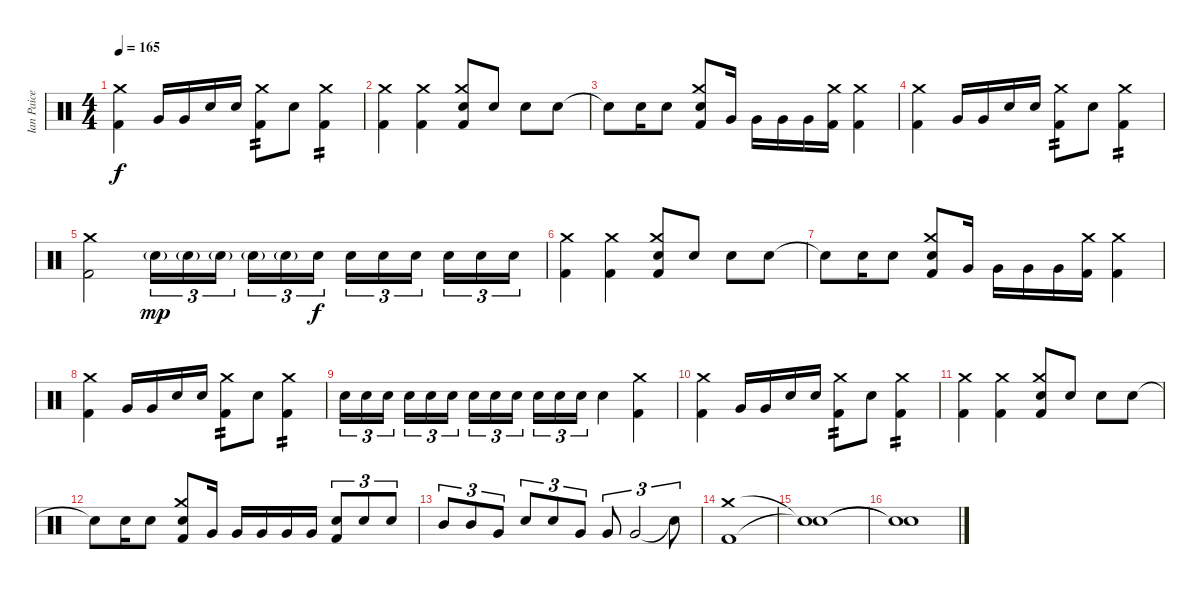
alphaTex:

\track ("Ian Paice - Drums" "Ian Paice ") {instrument percussion}
\staff {score}
\articulation defaults
\ts (4 4)
\tempo 165
\clef neutral
\ks c
("Kick (hit) 2" "Crash medium (hit)").4{dy f} "Very Low Tom (hit)".16 "Very Low Tom (hit)".16 "Electric Snare (hit)".16 "Electric Snare (hit)".16 ("Kick (hit) 2" "Crash medium (hit)").8{tp 2} "Electric Snare (hit)".8 ("Kick (hit) 2" "Crash medium (hit)").4{tp 2} |
("Kick (hit) 2" "Crash medium (hit)").4 ("Kick (hit) 2" "Crash medium (hit)").4 ("Kick (hit) 2" "Crash medium (hit)" "Electric Snare (hit)").8 "Electric Snare (hit)".8 "Electric Snare (hit)".8 "Electric Snare (hit)".8 |
"Snare (hit)"{t}.8 "Electric Snare (hit)".16 "Electric Snare (hit)".8 ("Kick (hit) 2" "Crash medium (hit)" "Electric Snare (hit)").8 "Very Low Tom (hit)".16 "Very Low Tom (hit)".16 "Very Low Tom (hit)".16 "Very Low Tom (hit)".16 ("Kick (hit) 2" "Crash medium (hit)").16 ("Kick (hit) 2" "Crash medium (hit)").4 |
("Kick (hit) 2" "Crash medium (hit)").4 "Very Low Tom (hit)".16 "Very Low Tom (hit)".16 "Electric Snare (hit)".16 "Electric Snare (hit)".16 ("Kick (hit) 2" "Crash medium (hit)").8{tp 2} "Electric Snare (hit)".8 ("Kick (hit) 2" "Crash medium (hit)").4{tp 2} |
("Kick (hit) 2" "Crash medium (hit)").2 "Electric Snare (hit)"{g}.16{tu (3 2) dy mp} "Electric Snare (hit)"{g}.16{tu (3 2)} "Electric Snare (hit)"{g}.16{tu (3 2) beam splitsecondary} "Electric Snare (hit)"{g}.16{tu (3 2)} "Electric Snare (hit)"{g}.16{tu (3 2)} "Electric Snare (hit)".16{tu (3 2) dy f} "Electric Snare (hit)".16{tu (3 2)} "Electric Snare (hit)".16{tu (3 2)} "Electric Snare (hit)".16{tu (3 2) beam splitsecondary} "Electric Snare (hit)".16{tu (3 2)} "Electric Snare (hit)".16{tu (3 2)} "Electric Snare (hit)".16{tu (3 2)} |
("Kick (hit) 2" "Crash medium (hit)").4 ("Kick (hit) 2" "Crash medium (hit)").4 ("Kick (hit) 2" "Crash medium (hit)" "Electric Snare (hit)").8 "Electric Snare (hit)".8 "Electric Snare (hit)".8 "Electric Snare (hit)".8 |
"Snare (hit)"{t}.8 "Electric Snare (hit)".16 "Electric Snare (hit)".8 ("Kick (hit) 2" "Crash medium (hit)" "Electric Snare (hit)").8 "Very Low Tom (hit)".16 "Very Low Tom (hit)".16 "Very Low Tom (hit)".16 "Very Low Tom (hit)".16 ("Kick (hit) 2" "Crash medium (hit)").16 ("Kick (hit) 2" "Crash medium (hit)").4 |
("Kick (hit) 2" "Crash medium (hit)").4 "Very Low Tom (hit)".16 "Very Low Tom (hit)".16 "Electric Snare (hit)".16 "Electric Snare (hit)".16 ("Kick (hit) 2" "Crash medium (hit)").8{tp 2} "Electric Snare (hit)".8 ("Kick (hit) 2" "Crash medium (hit)").4{tp 2} |
"Electric Snare (hit)".16{tu (3 2)} "Electric Snare (hit)".16{tu (3 2)} "Electric Snare (hit)".16{tu (3 2) beam splitsecondary} "Electric Snare (hit)".16{tu (3 2)} "Electric Snare (hit)".16{tu (3 2)} "Electric Snare (hit)".16{tu (3 2)} "Electric Snare (hit)".16{tu (3 2)} "Electric Snare (hit)".16{tu (3 2)} "Electric Snare (hit)".16{tu (3 2) beam splitsecondary} "Electric Snare (hit)".16{tu (3 2)} "Electric Snare (hit)".16{tu (3 2)} "Electric Snare (hit)".16{tu (3 2)} "Electric Snare (hit)".4 ("Kick (hit) 2" "Crash medium (hit)").4 |
("Kick (hit) 2" "Crash medium (hit)").4 "Very Low Tom (hit)".16 "Very Low Tom (hit)".16 "Electric Snare (hit)".16 "Electric Snare (hit)".16 ("Kick (hit) 2" "Crash medium (hit)").8{tp 2} "Electric Snare (hit)".8 ("Kick (hit) 2" "Crash medium (hit)").4{tp 2} |
("Kick (hit) 2" "Crash medium (hit)").4 ("Kick (hit) 2" "Crash medium (hit)").4 ("Kick (hit) 2" "Crash medium (hit)" "Electric Snare (hit)").8 "Electric Snare (hit)".8 "Electric Snare (hit)".8 "Electric Snare (hit)".8 |
"Snare (hit)"{t}.8 "Electric Snare (hit)".16 "Electric Snare (hit)".8 ("Kick (hit) 2" "Crash medium (hit)" "Electric Snare (hit)").8 "Very Low Tom (hit)".16 "Very Low Tom (hit)".16 "Very Low Tom (hit)".16 "Very Low Tom (hit)".16 "Very Low Tom (hit)".16 ("Kick (hit) 2" "Electric Snare (hit)").8{tu (3 2)} "Electric Snare (hit)".8{tu (3 2)} "Electric Snare (hit)".8{tu (3 2)} |
"Mid Tom (hit)".8{tu (3 2)} "Mid Tom (hit)".8{tu (3 2)} "Very Low Tom (hit)".8{tu (3 2)} "Electric Snare (hit)".8{tu (3 2)} "Electric Snare (hit)".8{tu (3 2)} "Very Low Tom (hit)".8{tu (3 2)} "Very Low Tom (hit)".8{tu (3 2)} "Very Low Tom (hit)".2{tu (3 2)} "Snare (hit)"{t}.8{tu (3 2)} |
("Kick (hit) 2" "Crash medium (hit)").1 |
("Snare (hit)"{t} "Snare (hit)"{t}).1 |
("Snare (hit)"{t} "Snare (hit)"{t}).1
